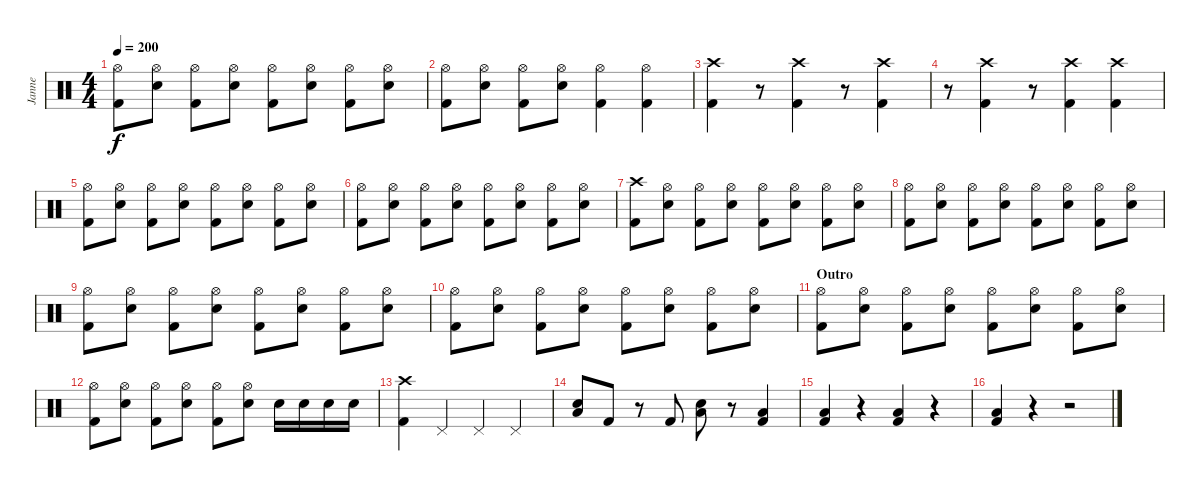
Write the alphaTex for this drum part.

\track ("Janne" "Janne") {instrument percussion}
\staff {score}
\articulation defaults
\ts (4 4)
\tempo 200
\clef neutral
\ks c
("Hi-Hat (open)" "Kick (hit) 2").8{dy f} ("Hi-Hat (open)" "Electric Snare (hit)").8 ("Hi-Hat (open)" "Kick (hit) 2").8 ("Hi-Hat (open)" "Electric Snare (hit)").8 ("Hi-Hat (open)" "Kick (hit) 2").8 ("Hi-Hat (open)" "Electric Snare (hit)").8 ("Hi-Hat (open)" "Kick (hit) 2").8 ("Hi-Hat (open)" "Electric Snare (hit)").8 |
("Hi-Hat (open)" "Kick (hit) 2").8 ("Hi-Hat (open)" "Electric Snare (hit)").8 ("Hi-Hat (open)" "Kick (hit) 2").8 ("Hi-Hat (open)" "Electric Snare (hit)").8 ("Hi-Hat (open)" "Kick (hit) 2").4 ("Hi-Hat (open)" "Kick (hit) 2").4 |
("Crash high (hit)" "Kick (hit) 2").4 r.8 ("Crash high (hit)" "Kick (hit) 2").4 r.8 ("Crash high (hit)" "Kick (hit) 2").4 |
r.8 ("Crash high (hit)" "Kick (hit) 2").4 r.8 ("Crash high (hit)" "Kick (hit) 2").4 ("Crash high (hit)" "Kick (hit) 2").4 |
("Hi-Hat (open)" "Kick (hit) 2").8 ("Hi-Hat (open)" "Electric Snare (hit)").8 ("Hi-Hat (open)" "Kick (hit) 2").8 ("Hi-Hat (open)" "Electric Snare (hit)").8 ("Hi-Hat (open)" "Kick (hit) 2").8 ("Hi-Hat (open)" "Electric Snare (hit)").8 ("Hi-Hat (open)" "Kick (hit) 2").8 ("Hi-Hat (open)" "Electric Snare (hit)").8 |
("Hi-Hat (open)" "Kick (hit) 2").8 ("Hi-Hat (open)" "Electric Snare (hit)").8 ("Hi-Hat (open)" "Kick (hit) 2").8 ("Hi-Hat (open)" "Electric Snare (hit)").8 ("Hi-Hat (open)" "Kick (hit) 2").8 ("Hi-Hat (open)" "Electric Snare (hit)").8 ("Hi-Hat (open)" "Kick (hit) 2").8 ("Hi-Hat (open)" "Electric Snare (hit)").8 |
("Crash high (hit)" "Kick (hit) 2").8 ("Hi-Hat (open)" "Electric Snare (hit)").8 ("Hi-Hat (open)" "Kick (hit) 2").8 ("Hi-Hat (open)" "Electric Snare (hit)").8 ("Hi-Hat (open)" "Kick (hit) 2").8 ("Hi-Hat (open)" "Electric Snare (hit)").8 ("Hi-Hat (open)" "Kick (hit) 2").8 ("Hi-Hat (open)" "Electric Snare (hit)").8 |
("Hi-Hat (open)" "Kick (hit) 2").8 ("Hi-Hat (open)" "Electric Snare (hit)").8 ("Hi-Hat (open)" "Kick (hit) 2").8 ("Hi-Hat (open)" "Electric Snare (hit)").8 ("Hi-Hat (open)" "Kick (hit) 2").8 ("Hi-Hat (open)" "Electric Snare (hit)").8 ("Hi-Hat (open)" "Kick (hit) 2").8 ("Hi-Hat (open)" "Electric Snare (hit)").8 |
("Hi-Hat (open)" "Kick (hit) 2").8 ("Hi-Hat (open)" "Electric Snare (hit)").8 ("Hi-Hat (open)" "Kick (hit) 2").8 ("Hi-Hat (open)" "Electric Snare (hit)").8 ("Hi-Hat (open)" "Kick (hit) 2").8 ("Hi-Hat (open)" "Electric Snare (hit)").8 ("Hi-Hat (open)" "Kick (hit) 2").8 ("Hi-Hat (open)" "Electric Snare (hit)").8 |
("Hi-Hat (open)" "Kick (hit) 2").8 ("Hi-Hat (open)" "Electric Snare (hit)").8 ("Hi-Hat (open)" "Kick (hit) 2").8 ("Hi-Hat (open)" "Electric Snare (hit)").8 ("Hi-Hat (open)" "Kick (hit) 2").8 ("Hi-Hat (open)" "Electric Snare (hit)").8 ("Hi-Hat (open)" "Kick (hit) 2").8 ("Hi-Hat (open)" "Electric Snare (hit)").8 |
\section ("" "Outro")
("Hi-Hat (open)" "Kick (hit) 2").8 ("Hi-Hat (open)" "Electric Snare (hit)").8 ("Hi-Hat (open)" "Kick (hit) 2").8 ("Hi-Hat (open)" "Electric Snare (hit)").8 ("Hi-Hat (open)" "Kick (hit) 2").8 ("Hi-Hat (open)" "Electric Snare (hit)").8 ("Hi-Hat (open)" "Kick (hit) 2").8 ("Hi-Hat (open)" "Electric Snare (hit)").8 |
("Hi-Hat (open)" "Kick (hit) 2").8 ("Hi-Hat (open)" "Electric Snare (hit)").8 ("Hi-Hat (open)" "Kick (hit) 2").8 ("Hi-Hat (open)" "Electric Snare (hit)").8 ("Hi-Hat (open)" "Kick (hit) 2").8 ("Hi-Hat (open)" "Electric Snare (hit)").8 "Electric Snare (hit)".16 "Electric Snare (hit)".16 "Electric Snare (hit)".16 "Electric Snare (hit)".16 |
("Crash high (hit)" "Kick (hit) 2").4 "Pedal Hi-Hat (hit)".4 "Pedal Hi-Hat (hit)".4 "Pedal Hi-Hat (hit)".4 |
("Low Floor Tom (hit)" "Electric Snare (hit)").8 "Kick (hit) 2".8 r.8 "Kick (hit) 2".8 ("Low Floor Tom (hit)" "Electric Snare (hit)").8 r.8 ("Low Floor Tom (hit)" "Kick (hit) 2").4 |
("Low Floor Tom (hit)" "Kick (hit) 2").4 r.4 ("Low Floor Tom (hit)" "Kick (hit) 2").4 r.4 |
("Low Floor Tom (hit)" "Kick (hit) 2").4 r.4 r.2
